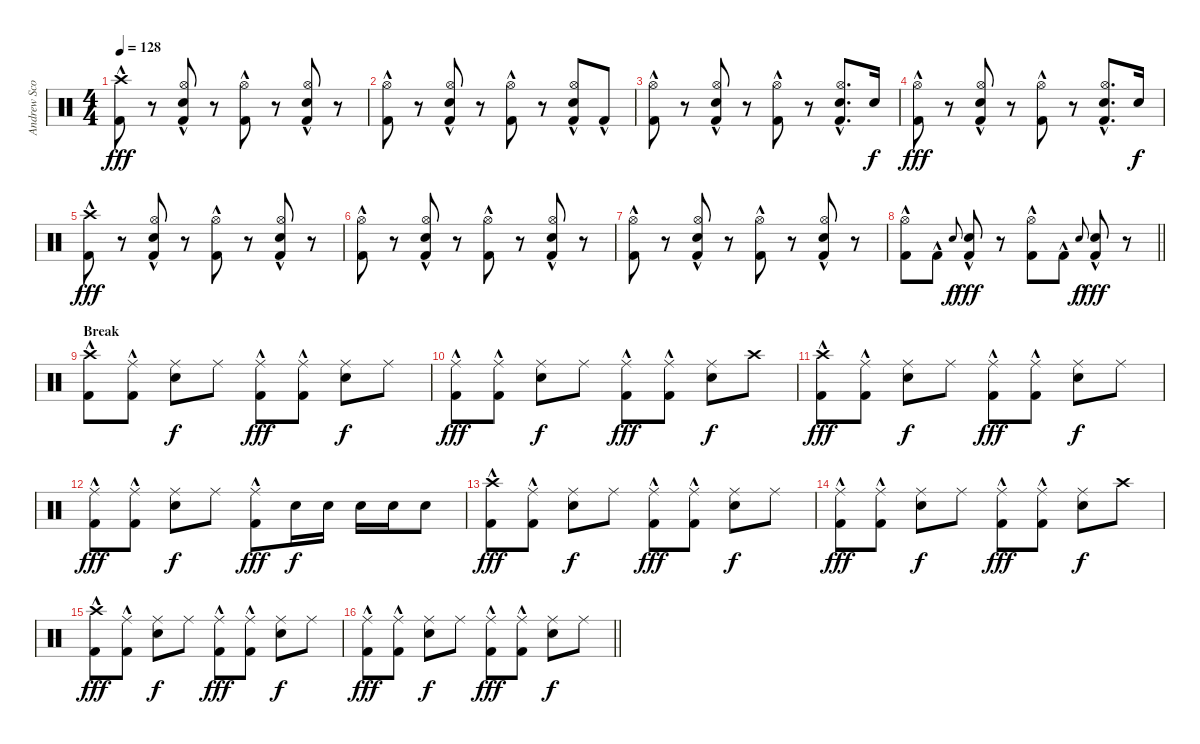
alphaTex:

\track ("Andrew Scott" "Andrew Sco") {instrument percussion}
\staff {score}
\articulation defaults
\ts (4 4)
\tempo 128
\clef neutral
\ks c
("Crash high (hit)" "Kick (hit) 2"{hac}).8{dy fff} r.8 ("Hi-Hat (open)" "Snare (hit) 2" "Kick (hit) 2"{hac}).8 r.8 ("Hi-Hat (open)" "Kick (hit) 2"{hac}).8 r.8 ("Hi-Hat (open)" "Snare (hit) 2" "Kick (hit) 2"{hac}).8 r.8 |
("Hi-Hat (open)" "Kick (hit) 2"{hac}).8 r.8 ("Hi-Hat (open)" "Snare (hit) 2" "Kick (hit) 2"{hac}).8 r.8 ("Hi-Hat (open)" "Kick (hit) 2"{hac}).8 r.8 ("Hi-Hat (open)" "Snare (hit) 2" "Kick (hit) 2"{hac}).8 "Kick (hit) 2"{hac}.8 |
("Hi-Hat (open)" "Kick (hit) 2"{hac}).8 r.8 ("Hi-Hat (open)" "Snare (hit) 2" "Kick (hit) 2"{hac}).8 r.8 ("Hi-Hat (open)" "Kick (hit) 2"{hac}).8 r.8 ("Hi-Hat (open)" "Snare (hit) 2" "Kick (hit) 2"{hac}).8{d} "Snare (hit) 2".16{dy f} |
("Hi-Hat (open)" "Kick (hit) 2"{hac}).8{dy fff} r.8 ("Hi-Hat (open)" "Snare (hit) 2" "Kick (hit) 2"{hac}).8 r.8 ("Hi-Hat (open)" "Kick (hit) 2"{hac}).8 r.8 ("Hi-Hat (open)" "Snare (hit) 2" "Kick (hit) 2"{hac}).8{d} "Snare (hit) 2".16{dy f} |
("Crash high (hit)" "Kick (hit) 2"{hac}).8{dy fff} r.8 ("Hi-Hat (open)" "Snare (hit) 2" "Kick (hit) 2"{hac}).8 r.8 ("Hi-Hat (open)" "Kick (hit) 2"{hac}).8 r.8 ("Hi-Hat (open)" "Snare (hit) 2" "Kick (hit) 2"{hac}).8 r.8 |
("Hi-Hat (open)" "Kick (hit) 2"{hac}).8 r.8 ("Hi-Hat (open)" "Snare (hit) 2" "Kick (hit) 2"{hac}).8 r.8 ("Hi-Hat (open)" "Kick (hit) 2"{hac}).8 r.8 ("Hi-Hat (open)" "Snare (hit) 2" "Kick (hit) 2"{hac}).8 r.8 |
("Hi-Hat (open)" "Kick (hit) 2"{hac}).8 r.8 ("Hi-Hat (open)" "Snare (hit) 2" "Kick (hit) 2"{hac}).8 r.8 ("Hi-Hat (open)" "Kick (hit) 2"{hac}).8 r.8 ("Hi-Hat (open)" "Snare (hit) 2" "Kick (hit) 2"{hac}).8 r.8 |
\barLineRight lightlight
("Hi-Hat (open)" "Kick (hit) 2"{hac}).8 "Kick (hit) 2"{hac}.8 "Snare (hit) 2".8{gr onbeat dy f} ("Snare (hit) 2" "Kick (hit) 2"{hac}).8{dy fff} r.8 ("Hi-Hat (open)" "Kick (hit) 2"{hac}).8 "Kick (hit) 2"{hac}.8 "Snare (hit) 2".8{gr onbeat dy f} ("Snare (hit) 2" "Kick (hit) 2"{hac}).8{dy fff} r.8 |
\section ("" "Break")
("Crash high (hit)" "Kick (hit) 2"{hac}).8 ("Ride (middle)" "Kick (hit) 2"{hac}).8 ("Ride (middle)" "Snare (hit) 2").8{dy f} "Ride (middle)".8 ("Ride (middle)" "Kick (hit) 2"{hac}).8{dy fff} ("Ride (middle)" "Kick (hit) 2"{hac}).8 ("Ride (middle)" "Snare (hit) 2").8{dy f} "Ride (middle)".8 |
("Ride (middle)" "Kick (hit) 2"{hac}).8{dy fff} ("Ride (middle)" "Kick (hit) 2"{hac}).8 ("Ride (middle)" "Snare (hit) 2").8{dy f} "Ride (middle)".8 ("Ride (middle)" "Kick (hit) 2"{hac}).8{dy fff} ("Ride (middle)" "Kick (hit) 2"{hac}).8 ("Ride (middle)" "Snare (hit) 2").8{dy f} "Crash high (hit)".8 |
("Crash high (hit)" "Kick (hit) 2"{hac}).8{dy fff} ("Ride (middle)" "Kick (hit) 2"{hac}).8 ("Ride (middle)" "Snare (hit) 2").8{dy f} "Ride (middle)".8 ("Ride (middle)" "Kick (hit) 2"{hac}).8{dy fff} ("Ride (middle)" "Kick (hit) 2"{hac}).8 ("Ride (middle)" "Snare (hit) 2").8{dy f} "Ride (middle)".8 |
("Ride (middle)" "Kick (hit) 2"{hac}).8{dy fff} ("Ride (middle)" "Kick (hit) 2"{hac}).8 ("Ride (middle)" "Snare (hit) 2").8{dy f} "Ride (middle)".8 ("Ride (middle)" "Kick (hit) 2"{hac}).8{dy fff} "Snare (hit) 2".16{dy f} "Snare (hit) 2".16 "Snare (hit) 2".16 "Snare (hit) 2".16 "Snare (hit) 2".8 |
("Crash high (hit)" "Kick (hit) 2"{hac}).8{dy fff} ("Ride (middle)" "Kick (hit) 2"{hac}).8 ("Ride (middle)" "Snare (hit) 2").8{dy f} "Ride (middle)".8 ("Ride (middle)" "Kick (hit) 2"{hac}).8{dy fff} ("Ride (middle)" "Kick (hit) 2"{hac}).8 ("Ride (middle)" "Snare (hit) 2").8{dy f} "Ride (middle)".8 |
("Ride (middle)" "Kick (hit) 2"{hac}).8{dy fff} ("Ride (middle)" "Kick (hit) 2"{hac}).8 ("Ride (middle)" "Snare (hit) 2").8{dy f} "Ride (middle)".8 ("Ride (middle)" "Kick (hit) 2"{hac}).8{dy fff} ("Ride (middle)" "Kick (hit) 2"{hac}).8 ("Ride (middle)" "Snare (hit) 2").8{dy f} "Crash high (hit)".8 |
("Crash high (hit)" "Kick (hit) 2"{hac}).8{dy fff} ("Ride (middle)" "Kick (hit) 2"{hac}).8 ("Ride (middle)" "Snare (hit) 2").8{dy f} "Ride (middle)".8 ("Ride (middle)" "Kick (hit) 2"{hac}).8{dy fff} ("Ride (middle)" "Kick (hit) 2"{hac}).8 ("Ride (middle)" "Snare (hit) 2").8{dy f} "Ride (middle)".8 |
\barLineRight lightlight
("Ride (middle)" "Kick (hit) 2"{hac}).8{dy fff} ("Ride (middle)" "Kick (hit) 2"{hac}).8 ("Ride (middle)" "Snare (hit) 2").8{dy f} "Ride (middle)".8 ("Ride (middle)" "Kick (hit) 2"{hac}).8{dy fff} ("Ride (middle)" "Kick (hit) 2"{hac}).8 ("Ride (middle)" "Snare (hit) 2").8{dy f} "Ride (middle)".8
